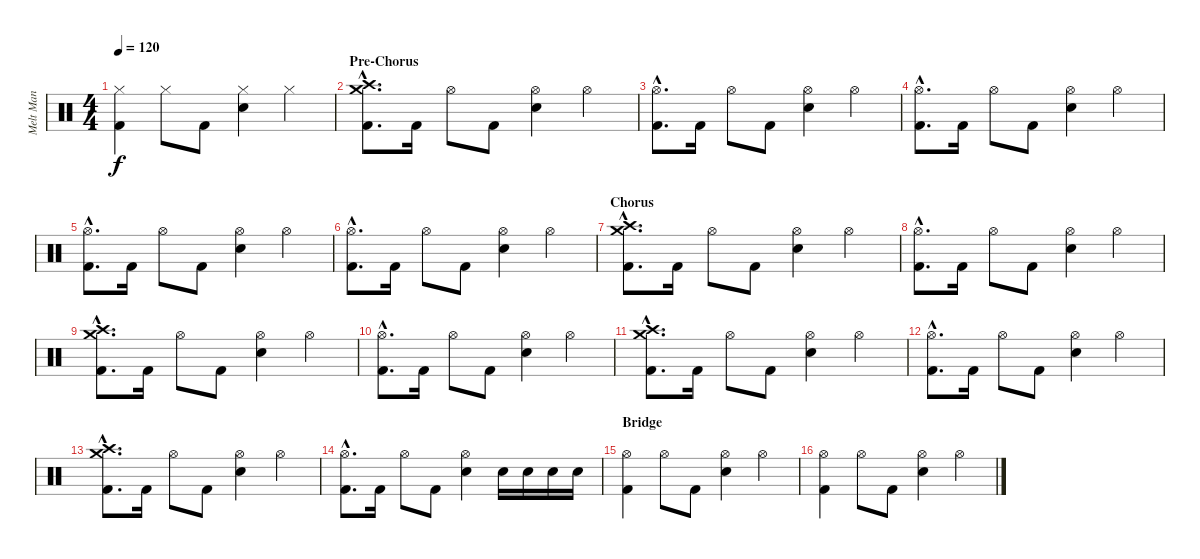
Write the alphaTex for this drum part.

\track ("Melt Man" "Melt Man") {instrument percussion}
\staff {score}
\articulation defaults
\ts (4 4)
\tempo 120
\clef neutral
\ks c
("Hi-Hat (closed)" "Kick (hit) 2").4{dy f} "Hi-Hat (closed)".8 "Kick (hit) 2".8 ("Hi-Hat (closed)" "Snare (hit) 2").4 "Hi-Hat (closed)".4 |
\section ("" "Pre-Chorus")
("Crash medium (hit)"{hac} "Crash high (hit)"{hac} "Kick (hit) 2"{hac}).8{d volume 13} "Kick (hit) 2".16 "Hi-Hat (open)".8 "Kick (hit) 2".8 ("Hi-Hat (open)" "Snare (hit) 2").4 "Hi-Hat (open)".4 |
("Hi-Hat (open)"{hac} "Kick (hit) 2"{hac}).8{d} "Kick (hit) 2".16 "Hi-Hat (open)".8 "Kick (hit) 2".8 ("Hi-Hat (open)" "Snare (hit) 2").4 "Hi-Hat (open)".4 |
("Hi-Hat (open)"{hac} "Kick (hit) 2"{hac}).8{d} "Kick (hit) 2".16 "Hi-Hat (open)".8 "Kick (hit) 2".8 ("Hi-Hat (open)" "Snare (hit) 2").4 "Hi-Hat (open)".4 |
("Hi-Hat (open)"{hac} "Kick (hit) 2"{hac}).8{d} "Kick (hit) 2".16 "Hi-Hat (open)".8 "Kick (hit) 2".8 ("Hi-Hat (open)" "Snare (hit) 2").4 "Hi-Hat (open)".4 |
("Hi-Hat (open)"{hac} "Kick (hit) 2"{hac}).8{d} "Kick (hit) 2".16 "Hi-Hat (open)".8 "Kick (hit) 2".8 ("Hi-Hat (open)" "Snare (hit) 2").4 "Hi-Hat (open)".4 |
\section ("" "Chorus")
("Crash medium (hit)"{hac} "Crash high (hit)"{hac} "Kick (hit) 2"{hac}).8{d} "Kick (hit) 2".16 "Hi-Hat (open)".8 "Kick (hit) 2".8 ("Hi-Hat (open)" "Snare (hit) 2").4 "Hi-Hat (open)".4 |
("Hi-Hat (open)"{hac} "Kick (hit) 2"{hac}).8{d} "Kick (hit) 2".16 "Hi-Hat (open)".8 "Kick (hit) 2".8 ("Hi-Hat (open)" "Snare (hit) 2").4 "Hi-Hat (open)".4 |
("Crash medium (hit)"{hac} "Crash high (hit)"{hac} "Kick (hit) 2"{hac}).8{d} "Kick (hit) 2".16 "Hi-Hat (open)".8 "Kick (hit) 2".8 ("Hi-Hat (open)" "Snare (hit) 2").4 "Hi-Hat (open)".4 |
("Hi-Hat (open)"{hac} "Kick (hit) 2"{hac}).8{d} "Kick (hit) 2".16 "Hi-Hat (open)".8 "Kick (hit) 2".8 ("Hi-Hat (open)" "Snare (hit) 2").4 "Hi-Hat (open)".4 |
("Crash medium (hit)"{hac} "Crash high (hit)"{hac} "Kick (hit) 2"{hac}).8{d} "Kick (hit) 2".16 "Hi-Hat (open)".8 "Kick (hit) 2".8 ("Hi-Hat (open)" "Snare (hit) 2").4 "Hi-Hat (open)".4 |
("Hi-Hat (open)"{hac} "Kick (hit) 2"{hac}).8{d} "Kick (hit) 2".16 "Hi-Hat (open)".8 "Kick (hit) 2".8 ("Hi-Hat (open)" "Snare (hit) 2").4 "Hi-Hat (open)".4 |
("Crash medium (hit)"{hac} "Crash high (hit)"{hac} "Kick (hit) 2"{hac}).8{d} "Kick (hit) 2".16 "Hi-Hat (open)".8 "Kick (hit) 2".8 ("Hi-Hat (open)" "Snare (hit) 2").4 "Hi-Hat (open)".4 |
("Hi-Hat (open)"{hac} "Kick (hit) 2"{hac}).8{d} "Kick (hit) 2".16 "Hi-Hat (open)".8 "Kick (hit) 2".8 ("Hi-Hat (open)" "Snare (hit) 2").4 "Snare (hit) 2".16 "Snare (hit) 2".16 "Snare (hit) 2".16 "Snare (hit) 2".16 |
\section ("" "Bridge")
("Hi-Hat (open)" "Kick (hit) 2").4 "Hi-Hat (open)".8 "Kick (hit) 2".8 ("Hi-Hat (open)" "Snare (hit) 2").4 "Hi-Hat (open)".4 |
("Hi-Hat (open)" "Kick (hit) 2").4 "Hi-Hat (open)".8 "Kick (hit) 2".8 ("Hi-Hat (open)" "Snare (hit) 2").4 "Hi-Hat (open)".4
